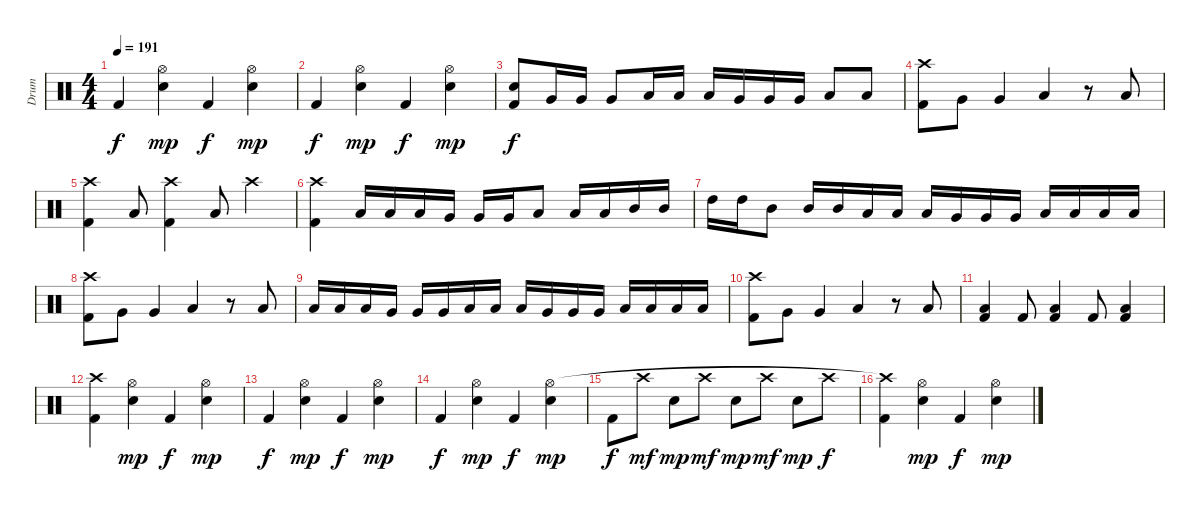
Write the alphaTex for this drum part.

\track ("Drum" "Drum") {instrument percussion}
\staff {score}
\articulation defaults
\ts (4 4)
\tempo 191
\clef neutral
\ks c "Kick (hit) 2".4{dy f}
("Snare (hit) 2" "Hi-Hat (open)").4{dy mp} "Kick (hit) 2".4{dy f} ("Snare (hit) 2" "Hi-Hat (open)").4{dy mp} |
"Kick (hit) 2".4{dy f} ("Snare (hit) 2" "Hi-Hat (open)").4{dy mp} "Kick (hit) 2".4{dy f} ("Snare (hit) 2" "Hi-Hat (open)").4{dy mp} |
("Kick (hit) 2" "Snare (hit) 2").8{dy f} "Very Low Tom (hit)".16 "Very Low Tom (hit)".16 "Very Low Tom (hit)".8 "Low Tom (hit)".16 "Low Tom (hit)".16 "Low Tom (hit)".16 "Very Low Tom (hit)".16 "Very Low Tom (hit)".16 "Very Low Tom (hit)".16 "Low Floor Tom (hit)".8 "Low Floor Tom (hit)".8 |
("Kick (hit) 2" "Crash high (hit)").8 "Very Low Tom (hit)".8 "Very Low Tom (hit)".4 "Low Floor Tom (hit)".4 r.8 "Low Floor Tom (hit)".8 |
("Kick (hit) 2" "Crash high (hit)").4 "Low Floor Tom (hit)".8 ("Kick (hit) 2" "Crash high (hit)").4 "Low Floor Tom (hit)".8 "Crash high (hit)".4 |
("Kick (hit) 2" "Crash high (hit)").4 "Low Floor Tom (hit)".16 "Low Floor Tom (hit)".16 "Low Floor Tom (hit)".16 "Very Low Tom (hit)".16 "Very Low Tom (hit)".16 "Very Low Tom (hit)".16 "Low Tom (hit)".8 "Low Tom (hit)".16 "Low Tom (hit)".16 "Mid Tom (hit)".16 "Mid Tom (hit)".16 |
"High Tom (hit)".16 "High Tom (hit)".16 "Mid Tom (hit)".8 "Mid Tom (hit)".16 "Mid Tom (hit)".16 "Low Tom (hit)".16 "Low Tom (hit)".16 "Low Tom (hit)".16 "Very Low Tom (hit)".16 "Very Low Tom (hit)".16 "Very Low Tom (hit)".16 "Low Floor Tom (hit)".16 "Low Floor Tom (hit)".16 "Low Floor Tom (hit)".16 "Low Floor Tom (hit)".16 |
("Kick (hit) 2" "Crash high (hit)").8 "Very Low Tom (hit)".8 "Very Low Tom (hit)".4 "Low Floor Tom (hit)".4 r.8 "Low Floor Tom (hit)".8 |
"Low Floor Tom (hit)".16 "Low Floor Tom (hit)".16 "Low Floor Tom (hit)".16 "Very Low Tom (hit)".16 "Very Low Tom (hit)".16 "Very Low Tom (hit)".16 "Low Tom (hit)".16 "Low Tom (hit)".16 "Low Tom (hit)".16 "Very Low Tom (hit)".16 "Very Low Tom (hit)".16 "Very Low Tom (hit)".16 "Low Floor Tom (hit)".16 "Low Floor Tom (hit)".16 "Low Floor Tom (hit)".16 "Low Floor Tom (hit)".16 |
("Kick (hit) 2" "Crash high (hit)").8 "Very Low Tom (hit)".8 "Very Low Tom (hit)".4 "Low Floor Tom (hit)".4 r.8 "Low Floor Tom (hit)".8 |
("Kick (hit) 2" "Low Floor Tom (hit)").4 "Kick (hit) 2".8 ("Kick (hit) 2" "Low Floor Tom (hit)").4 "Kick (hit) 2".8 ("Kick (hit) 2" "Low Floor Tom (hit)").4 |
("Kick (hit) 2" "Crash high (hit)").4 ("Snare (hit) 2" "Hi-Hat (open)").4{dy mp} "Kick (hit) 2".4{dy f} ("Snare (hit) 2" "Hi-Hat (open)").4{dy mp} |
"Kick (hit) 2".4{dy f} ("Snare (hit) 2" "Hi-Hat (open)").4{dy mp} "Kick (hit) 2".4{dy f} ("Snare (hit) 2" "Hi-Hat (open)").4{dy mp} |
"Kick (hit) 2".4{dy f} ("Snare (hit) 2" "Hi-Hat (open)").4{dy mp} "Kick (hit) 2".4{dy f} ("Snare (hit) 2" "Hi-Hat (open)").4{dy mp} |
"Kick (hit) 2".8{dy f} "Crash high (hit)".8{dy mf} "Snare (hit) 2".8{dy mp} "Crash high (hit)".8{dy mf} "Snare (hit) 2".8{dy mp} "Crash high (hit)".8{dy mf} "Snare (hit) 2".8{dy mp} "Crash high (hit)".8{dy f} |
("Kick (hit) 2" "Crash high (hit)"{t}).4 ("Snare (hit) 2" "Hi-Hat (open)").4{dy mp} "Kick (hit) 2".4{dy f} ("Snare (hit) 2" "Hi-Hat (open)").4{dy mp}
